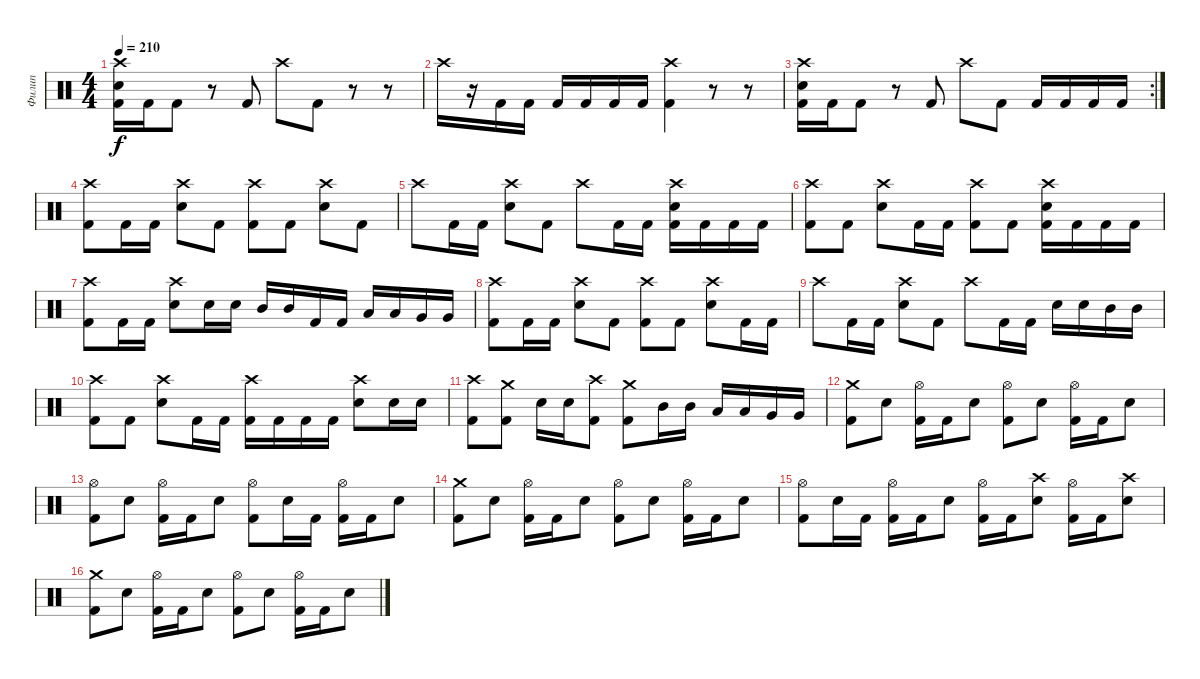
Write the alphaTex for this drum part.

\track ("Филип" "Филип") {instrument percussion}
\staff {score}
\articulation defaults
\ts (4 4)
\tempo 210
\clef neutral
\ks c
("Crash high (hit)" "Electric Snare (hit)" "Kick (hit) 2").16{dy f} "Kick (hit) 2".16 "Kick (hit) 2".8 r.8 "Kick (hit) 2".8 "Crash high (hit)".8 "Kick (hit) 2".8 r.8 r.8 |
"Crash high (hit)".16 r.16 "Kick (hit) 2".16 "Kick (hit) 2".16 "Kick (hit) 2".16 "Kick (hit) 2".16 "Kick (hit) 2".16 "Kick (hit) 2".16 ("Crash high (hit)" "Kick (hit) 2").4 r.8 r.8 |
\rc 2
("Crash high (hit)" "Electric Snare (hit)" "Kick (hit) 2").16 "Kick (hit) 2".16 "Kick (hit) 2".8 r.8 "Kick (hit) 2".8 "Crash high (hit)".8 "Kick (hit) 2".8 "Kick (hit) 2".16 "Kick (hit) 2".16 "Kick (hit) 2".16 "Kick (hit) 2".16 |
("Crash high (hit)" "Kick (hit) 2").8 "Kick (hit) 2".16 "Kick (hit) 2".16 ("Crash high (hit)" "Electric Snare (hit)").8 "Kick (hit) 2".8 ("Crash high (hit)" "Kick (hit) 2").8 "Kick (hit) 2".8 ("Crash high (hit)" "Electric Snare (hit)").8 "Kick (hit) 2".8 |
"Crash high (hit)".8 "Kick (hit) 2".16 "Kick (hit) 2".16 ("Crash high (hit)" "Electric Snare (hit)").8 "Kick (hit) 2".8 "Crash high (hit)".8 "Kick (hit) 2".16 "Kick (hit) 2".16 ("Crash high (hit)" "Electric Snare (hit)" "Kick (hit) 2").16 "Kick (hit) 2".16 "Kick (hit) 2".16 "Kick (hit) 2".16 |
("Crash high (hit)" "Kick (hit) 2").8 "Kick (hit) 2".8 ("Crash high (hit)" "Electric Snare (hit)").8 "Kick (hit) 2".16 "Kick (hit) 2".16 ("Crash high (hit)" "Kick (hit) 2").8 "Kick (hit) 2".8 ("Crash high (hit)" "Electric Snare (hit)" "Kick (hit) 2").16 "Kick (hit) 2".16 "Kick (hit) 2".16 "Kick (hit) 2".16 |
("Crash high (hit)" "Kick (hit) 2").8 "Kick (hit) 2".16 "Kick (hit) 2".16 ("Crash high (hit)" "Electric Snare (hit)").8 "Electric Snare (hit)".16 "Electric Snare (hit)".16 "Mid Tom (hit)".16 "Mid Tom (hit)".16 "Kick (hit) 2".16 "Kick (hit) 2".16 "Low Tom (hit)".16 "Low Tom (hit)".16 "Very Low Tom (hit)".16 "Very Low Tom (hit)".16 |
("Crash high (hit)" "Kick (hit) 2").8 "Kick (hit) 2".16 "Kick (hit) 2".16 ("Crash high (hit)" "Electric Snare (hit)").8 "Kick (hit) 2".8 ("Crash high (hit)" "Kick (hit) 2").8 "Kick (hit) 2".8 ("Crash high (hit)" "Electric Snare (hit)").8 "Kick (hit) 2".16 "Kick (hit) 2".16 |
"Crash high (hit)".8 "Kick (hit) 2".16 "Kick (hit) 2".16 ("Crash high (hit)" "Electric Snare (hit)").8 "Kick (hit) 2".8 "Crash high (hit)".8 "Kick (hit) 2".16 "Kick (hit) 2".16 "Electric Snare (hit)".16 "Electric Snare (hit)".16 "Mid Tom (hit)".16 "Mid Tom (hit)".16 |
("Crash high (hit)" "Kick (hit) 2").8 "Kick (hit) 2".8 ("Crash high (hit)" "Electric Snare (hit)").8 "Kick (hit) 2".16 "Kick (hit) 2".16 ("Crash high (hit)" "Kick (hit) 2").16 "Kick (hit) 2".16 "Kick (hit) 2".16 "Kick (hit) 2".16 ("Crash high (hit)" "Electric Snare (hit)").8 "Electric Snare (hit)".16 "Electric Snare (hit)".16 |
("Crash high (hit)" "Kick (hit) 2").8 ("Crash medium (hit)" "Kick (hit) 2").8 "Electric Snare (hit)".16 "Electric Snare (hit)".16 ("Crash high (hit)" "Kick (hit) 2").8 ("Crash medium (hit)" "Kick (hit) 2").8 "Mid Tom (hit)".16 "Mid Tom (hit)".16 "Low Tom (hit)".16 "Low Tom (hit)".16 "Very Low Tom (hit)".16 "Very Low Tom (hit)".16 |
("Crash medium (hit)" "Kick (hit) 2").8 "Electric Snare (hit)".8 ("Hi-Hat (open)" "Kick (hit) 2").16 "Kick (hit) 2".16 "Electric Snare (hit)".8 ("Hi-Hat (open)" "Kick (hit) 2").8 "Electric Snare (hit)".8 ("Hi-Hat (open)" "Kick (hit) 2").16 "Kick (hit) 2".16 "Electric Snare (hit)".8 |
("Hi-Hat (open)" "Kick (hit) 2").8 "Electric Snare (hit)".8 ("Hi-Hat (open)" "Kick (hit) 2").16 "Kick (hit) 2".16 "Electric Snare (hit)".8 ("Hi-Hat (open)" "Kick (hit) 2").8 "Electric Snare (hit)".16 "Kick (hit) 2".16 ("Hi-Hat (open)" "Kick (hit) 2").16 "Kick (hit) 2".16 "Electric Snare (hit)".8 |
("Crash medium (hit)" "Kick (hit) 2").8 "Electric Snare (hit)".8 ("Hi-Hat (open)" "Kick (hit) 2").16 "Kick (hit) 2".16 "Electric Snare (hit)".8 ("Hi-Hat (open)" "Kick (hit) 2").8 "Electric Snare (hit)".8 ("Hi-Hat (open)" "Kick (hit) 2").16 "Kick (hit) 2".16 "Electric Snare (hit)".8 |
("Hi-Hat (open)" "Kick (hit) 2").8 "Electric Snare (hit)".16 "Kick (hit) 2".16 ("Hi-Hat (open)" "Kick (hit) 2").16 "Kick (hit) 2".16 "Electric Snare (hit)".8 ("Hi-Hat (open)" "Kick (hit) 2").16 "Kick (hit) 2".16 ("Crash high (hit)" "Electric Snare (hit)").8 ("Hi-Hat (open)" "Kick (hit) 2").16 "Kick (hit) 2".16 ("Crash high (hit)" "Electric Snare (hit)").8 |
("Crash medium (hit)" "Kick (hit) 2").8 "Electric Snare (hit)".8 ("Hi-Hat (open)" "Kick (hit) 2").16 "Kick (hit) 2".16 "Electric Snare (hit)".8 ("Hi-Hat (open)" "Kick (hit) 2").8 "Electric Snare (hit)".8 ("Hi-Hat (open)" "Kick (hit) 2").16 "Kick (hit) 2".16 "Electric Snare (hit)".8
